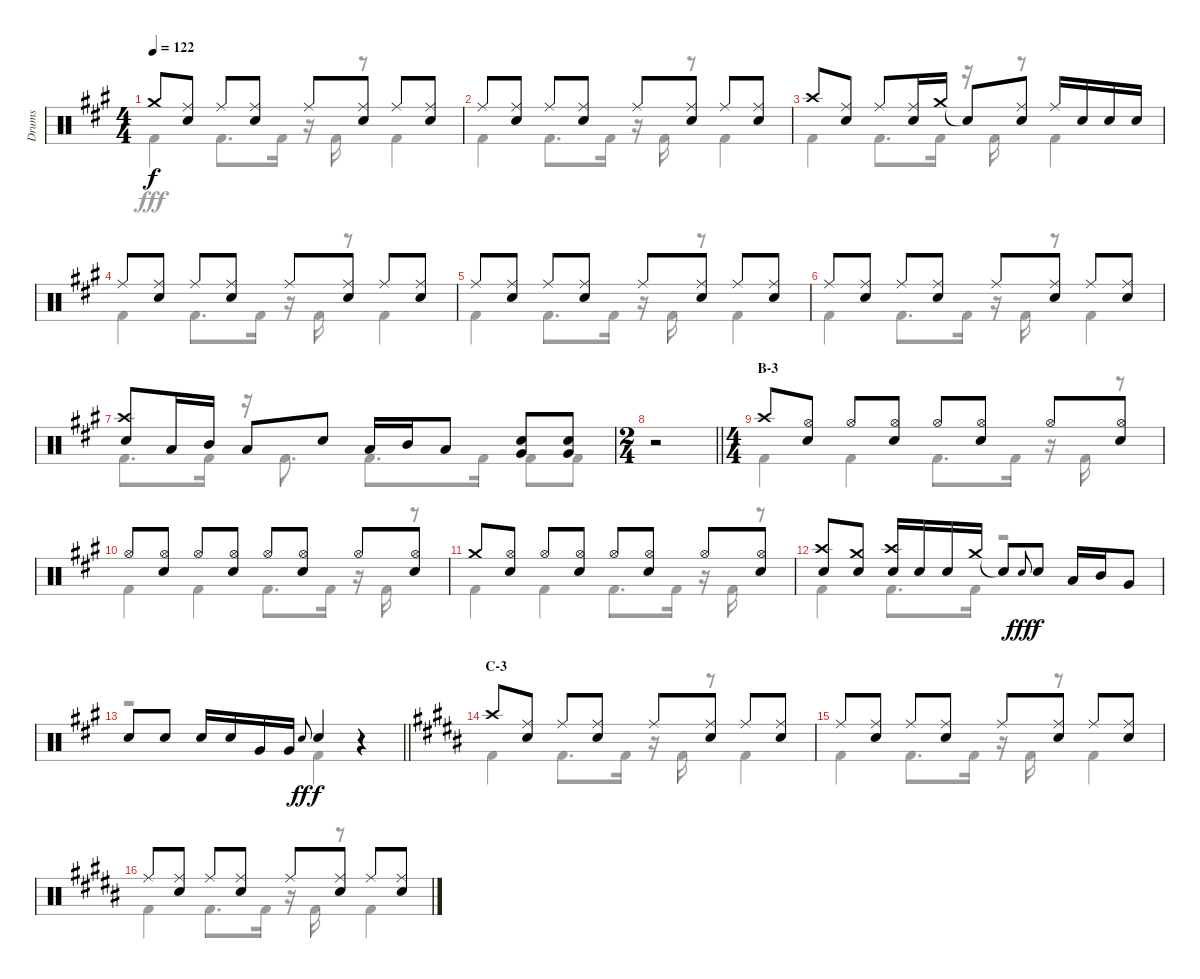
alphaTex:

\track ("Drums" "Drums") {instrument percussion}
\staff {score}
\articulation defaults
\voice
\ts (4 4)
\tempo 122
\clef neutral
\ks a "Crash medium (hit)".8{dy f}
("Ride (middle)" "Snare (hit) 2").8 "Ride (middle)".8 ("Ride (middle)" "Snare (hit) 2").8 "Ride (middle)".8 ("Ride (middle)" "Snare (hit) 2").8 "Ride (middle)".8 ("Ride (middle)" "Snare (hit) 2").8 |
"Ride (middle)".8 ("Ride (middle)" "Snare (hit) 2").8 "Ride (middle)".8 ("Ride (middle)" "Snare (hit) 2").8 "Ride (middle)".8 ("Ride (middle)" "Snare (hit) 2").8 "Ride (middle)".8 ("Ride (middle)" "Snare (hit) 2").8 |
"Crash high (hit)".8 ("Ride (middle)" "Snare (hit) 2").8 "Ride (middle)".8 ("Ride (middle)" "Snare (hit) 2").16 "Crash medium (hit)".16 "Snare (hit)"{t}.8 ("Ride (middle)" "Snare (hit) 2").8 "Ride (middle)".16 "Snare (hit) 2".16 "Snare (hit) 2".16 "Snare (hit) 2".16 |
"Ride (middle)".8 ("Ride (middle)" "Snare (hit) 2").8 "Ride (middle)".8 ("Ride (middle)" "Snare (hit) 2").8 "Ride (middle)".8 ("Ride (middle)" "Snare (hit) 2").8 "Ride (middle)".8 ("Ride (middle)" "Snare (hit) 2").8 |
"Ride (middle)".8 ("Ride (middle)" "Snare (hit) 2").8 "Ride (middle)".8 ("Ride (middle)" "Snare (hit) 2").8 "Ride (middle)".8 ("Ride (middle)" "Snare (hit) 2").8 "Ride (middle)".8 ("Ride (middle)" "Snare (hit) 2").8 |
"Ride (middle)".8 ("Ride (middle)" "Snare (hit) 2").8 "Ride (middle)".8 ("Ride (middle)" "Snare (hit) 2").8 "Ride (middle)".8 ("Ride (middle)" "Snare (hit) 2").8 "Ride (middle)".8 ("Ride (middle)" "Snare (hit) 2").8 |
("Crash high (hit)" "Snare (hit) 2").8 "Low Tom (hit)".16 "Mid Tom (hit)".16 "Low Tom (hit)".8 "Snare (hit) 2".8 "Low Tom (hit)".16 "Mid Tom (hit)".16 "Low Tom (hit)".8 ("Snare (hit) 2" "Very Low Tom (hit)").8 ("Snare (hit) 2" "Very Low Tom (hit)").8 |
\ts (2 4)
\barLineRight lightlight
r.2 |
\ts (4 4)
\section ("" "B-3")
"Crash high (hit)".8 ("Hi-Hat (open)" "Snare (hit) 2").8 "Hi-Hat (open)".8 ("Hi-Hat (open)" "Snare (hit) 2").8 "Hi-Hat (open)".8 ("Hi-Hat (open)" "Snare (hit) 2").8 "Hi-Hat (open)".8 ("Hi-Hat (open)" "Snare (hit) 2").8 |
"Hi-Hat (open)".8 ("Hi-Hat (open)" "Snare (hit) 2").8 "Hi-Hat (open)".8 ("Hi-Hat (open)" "Snare (hit) 2").8 "Hi-Hat (open)".8 ("Hi-Hat (open)" "Snare (hit) 2").8 "Hi-Hat (open)".8 ("Hi-Hat (open)" "Snare (hit) 2").8 |
"Crash medium (hit)".8 ("Hi-Hat (open)" "Snare (hit) 2").8 "Hi-Hat (open)".8 ("Hi-Hat (open)" "Snare (hit) 2").8 "Hi-Hat (open)".8 ("Hi-Hat (open)" "Snare (hit) 2").8 "Hi-Hat (open)".8 ("Hi-Hat (open)" "Snare (hit) 2").8 |
("Crash high (hit)" "Snare (hit) 2").8 ("Crash medium (hit)" "Snare (hit) 2").8 ("Crash high (hit)" "Snare (hit) 2").16 "Snare (hit) 2".16 "Snare (hit) 2".16 "Crash medium (hit)".16 "Snare (hit)"{t}.8 "Snare (hit) 2".8{gr onbeat dy fff} "Snare (hit) 2".8{dy f} "Low Tom (hit)".16 "Mid Tom (hit)".16 "Very Low Tom (hit)".8 |
\barLineRight lightlight "Snare (hit) 2".8 "Snare (hit) 2".8 "Snare (hit) 2".16 "Snare (hit) 2".16 "Very Low Tom (hit)".16 "Very Low Tom (hit)".16 "Snare (hit) 2".8{gr onbeat dy ff} "Snare (hit) 2".4{dy f}
r.4 |
\section ("" "C-3")
\ks b "Crash high (hit)".8
("Ride (middle)" "Snare (hit) 2").8 "Ride (middle)".8 ("Ride (middle)" "Snare (hit) 2").8 "Ride (middle)".8 ("Ride (middle)" "Snare (hit) 2").8 "Ride (middle)".8 ("Ride (middle)" "Snare (hit) 2").8 |
"Ride (middle)".8 ("Ride (middle)" "Snare (hit) 2").8 "Ride (middle)".8 ("Ride (middle)" "Snare (hit) 2").8 "Ride (middle)".8 ("Ride (middle)" "Snare (hit) 2").8 "Ride (middle)".8 ("Ride (middle)" "Snare (hit) 2").8 |
"Ride (middle)".8 ("Ride (middle)" "Snare (hit) 2").8 "Ride (middle)".8 ("Ride (middle)" "Snare (hit) 2").8 "Ride (middle)".8 ("Ride (middle)" "Snare (hit) 2").8 "Ride (middle)".8 ("Ride (middle)" "Snare (hit) 2").8
\voice
\clef neutral
\ottava regular
\simile none
\ks a "Kick (hit) 2".4{dy fff} "Kick (hit) 2".8{d} "Kick (hit) 2".16
r.16 "Kick (hit) 2".16 r.8 "Kick (hit) 2".4 |
"Kick (hit) 2".4 "Kick (hit) 2".8{d} "Kick (hit) 2".16 r.16 "Kick (hit) 2".16 r.8 "Kick (hit) 2".4 |
"Kick (hit) 2".4 "Kick (hit) 2".8{d} "Kick (hit) 2".16 r.16 "Kick (hit) 2".16 r.8 "Kick (hit) 2".4 |
"Kick (hit) 2".4 "Kick (hit) 2".8{d} "Kick (hit) 2".16 r.16 "Kick (hit) 2".16 r.8 "Kick (hit) 2".4 |
"Kick (hit) 2".4 "Kick (hit) 2".8{d} "Kick (hit) 2".16 r.16 "Kick (hit) 2".16 r.8 "Kick (hit) 2".4 |
"Kick (hit) 2".4 "Kick (hit) 2".8{d} "Kick (hit) 2".16 r.16 "Kick (hit) 2".16 r.8 "Kick (hit) 2".4 |
"Kick (hit) 2".8{d} "Kick (hit) 2".16 r.16 "Kick (hit) 2".8{d} "Kick (hit) 2".8{d} "Kick (hit) 2".16 "Kick (hit) 2".8 "Kick (hit) 2".8 |
\barLineRight lightlight
r.2 |
"Kick (hit) 2".4 "Kick (hit) 2".4 "Kick (hit) 2".8{d} "Kick (hit) 2".16 r.16 "Kick (hit) 2".16 r.8 |
"Kick (hit) 2".4 "Kick (hit) 2".4 "Kick (hit) 2".8{d} "Kick (hit) 2".16 r.16 "Kick (hit) 2".16 r.8 |
"Kick (hit) 2".4 "Kick (hit) 2".4 "Kick (hit) 2".8{d} "Kick (hit) 2".16 r.16 "Kick (hit) 2".16 r.8 |
"Kick (hit) 2".4 "Kick (hit) 2".8{d} "Kick (hit) 2".16 r.2 |
\barLineRight lightlight
r.2 "Kick (hit) 2".4 r.4 |
\ks b "Kick (hit) 2".4 "Kick (hit) 2".8{d} "Kick (hit) 2".16
r.16 "Kick (hit) 2".16 r.8 "Kick (hit) 2".4 |
"Kick (hit) 2".4 "Kick (hit) 2".8{d} "Kick (hit) 2".16 r.16 "Kick (hit) 2".16 r.8 "Kick (hit) 2".4 |
"Kick (hit) 2".4 "Kick (hit) 2".8{d} "Kick (hit) 2".16 r.16 "Kick (hit) 2".16 r.8 "Kick (hit) 2".4
